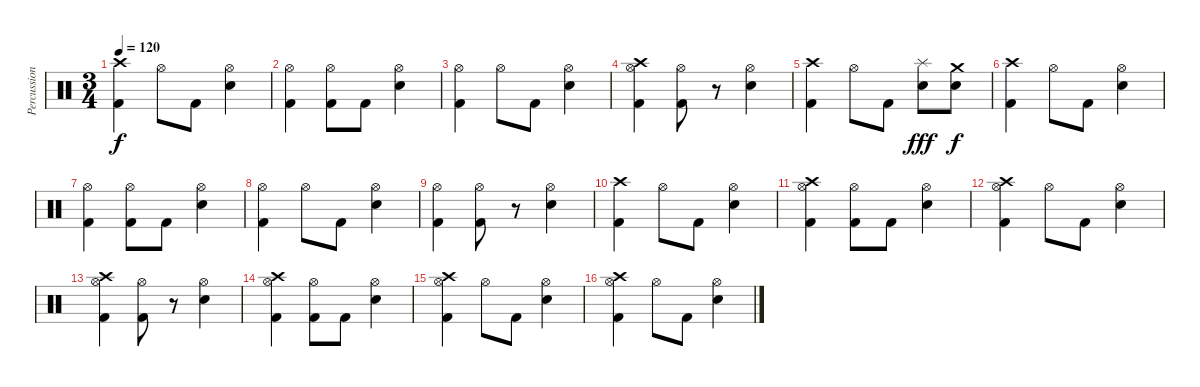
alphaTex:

\track ("Percussion" "Percussion") {instrument percussion}
\staff {score}
\articulation defaults
\ts (3 4)
\tempo 120
\clef neutral
\ks c
("Crash high (hit)" "Kick (hit) 2").4{dy f} "Hi-Hat (open)".8 "Kick (hit) 2".8 ("Hi-Hat (open)" "Electric Snare (hit)").4 |
("Hi-Hat (open)" "Kick (hit) 2").4 ("Hi-Hat (open)" "Kick (hit) 2").8 "Kick (hit) 2".8 ("Hi-Hat (open)" "Electric Snare (hit)").4 |
("Hi-Hat (open)" "Kick (hit) 2").4 "Hi-Hat (open)".8 "Kick (hit) 2".8 ("Hi-Hat (open)" "Electric Snare (hit)").4 |
("Crash high (hit)" "Hi-Hat (open)" "Kick (hit) 2").4 ("Hi-Hat (open)" "Kick (hit) 2").8 r.8 ("Hi-Hat (open)" "Electric Snare (hit)").4 |
("Crash high (hit)" "Kick (hit) 2").4 "Hi-Hat (open)".8 "Kick (hit) 2".8 ("Splash (hit)" "Electric Snare (hit)").8{dy fff} ("Crash medium (hit)" "Electric Snare (hit)").8{dy f} |
("Crash high (hit)" "Kick (hit) 2").4 "Hi-Hat (open)".8 "Kick (hit) 2".8 ("Hi-Hat (open)" "Electric Snare (hit)").4 |
("Hi-Hat (open)" "Kick (hit) 2").4 ("Hi-Hat (open)" "Kick (hit) 2").8 "Kick (hit) 2".8 ("Hi-Hat (open)" "Electric Snare (hit)").4 |
("Hi-Hat (open)" "Kick (hit) 2").4 "Hi-Hat (open)".8 "Kick (hit) 2".8 ("Hi-Hat (open)" "Electric Snare (hit)").4 |
("Hi-Hat (open)" "Kick (hit) 2").4 ("Hi-Hat (open)" "Kick (hit) 2").8 r.8 ("Hi-Hat (open)" "Electric Snare (hit)").4 |
("Crash high (hit)" "Kick (hit) 2").4 "Hi-Hat (open)".8 "Kick (hit) 2".8 ("Hi-Hat (open)" "Electric Snare (hit)").4 |
("Crash high (hit)" "Hi-Hat (open)" "Kick (hit) 2").4 ("Hi-Hat (open)" "Kick (hit) 2").8 "Kick (hit) 2".8 ("Hi-Hat (open)" "Electric Snare (hit)").4 |
("Crash high (hit)" "Hi-Hat (open)" "Kick (hit) 2").4 "Hi-Hat (open)".8 "Kick (hit) 2".8 ("Hi-Hat (open)" "Electric Snare (hit)").4 |
("Crash high (hit)" "Hi-Hat (open)" "Kick (hit) 2").4 ("Hi-Hat (open)" "Kick (hit) 2").8 r.8 ("Hi-Hat (open)" "Electric Snare (hit)").4 |
("Crash high (hit)" "Hi-Hat (open)" "Kick (hit) 2").4 ("Hi-Hat (open)" "Kick (hit) 2").8 "Kick (hit) 2".8 ("Hi-Hat (open)" "Electric Snare (hit)").4 |
("Crash high (hit)" "Hi-Hat (open)" "Kick (hit) 2").4 "Hi-Hat (open)".8 "Kick (hit) 2".8 ("Hi-Hat (open)" "Electric Snare (hit)").4 |
("Crash high (hit)" "Hi-Hat (open)" "Kick (hit) 2").4 "Hi-Hat (open)".8 "Kick (hit) 2".8 ("Hi-Hat (open)" "Electric Snare (hit)").4
